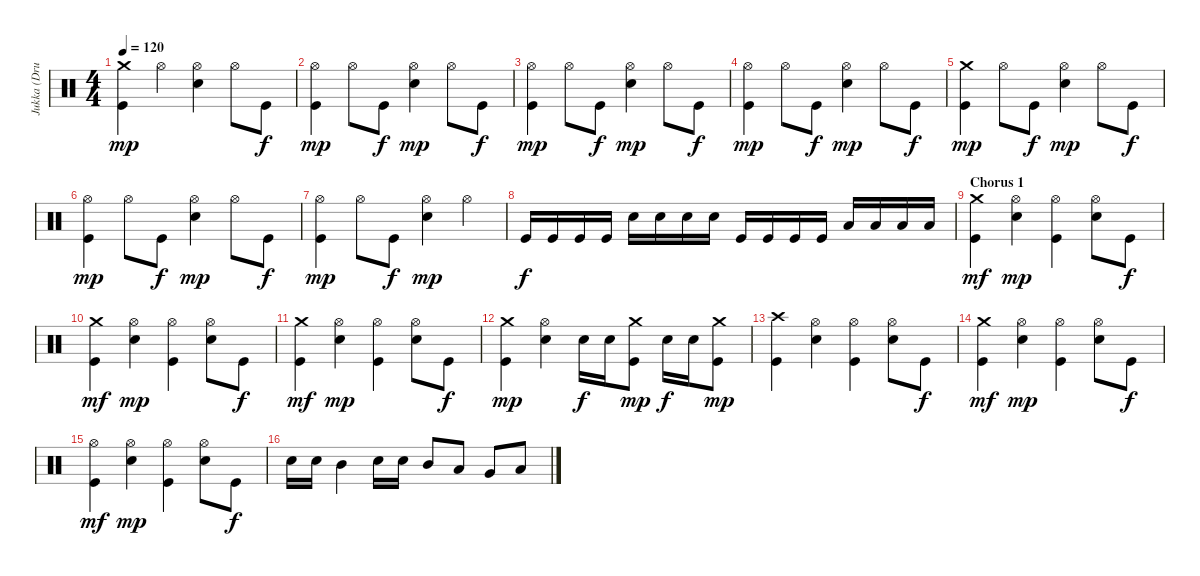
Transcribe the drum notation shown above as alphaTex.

\track ("Jukka (Drums)" "Jukka (Dru") {instrument percussion}
\staff {score}
\articulation defaults
\ts (4 4)
\tempo 120
\clef neutral
\ks c
("Crash medium (hit)" "Kick (hit)").4{dy mp} "Hi-Hat (open)".4 ("Hi-Hat (open)" "Electric Snare (hit)").4 "Hi-Hat (open)".8 "Kick (hit)".8{dy f} |
("Hi-Hat (open)" "Kick (hit)").4{dy mp} "Hi-Hat (open)".8 "Kick (hit)".8{dy f} ("Hi-Hat (open)" "Electric Snare (hit)").4{dy mp} "Hi-Hat (open)".8 "Kick (hit)".8{dy f} |
("Hi-Hat (open)" "Kick (hit)").4{dy mp} "Hi-Hat (open)".8 "Kick (hit)".8{dy f} ("Hi-Hat (open)" "Electric Snare (hit)").4{dy mp} "Hi-Hat (open)".8 "Kick (hit)".8{dy f} |
("Hi-Hat (open)" "Kick (hit)").4{dy mp} "Hi-Hat (open)".8 "Kick (hit)".8{dy f} ("Hi-Hat (open)" "Electric Snare (hit)").4{dy mp} "Hi-Hat (open)".8 "Kick (hit)".8{dy f} |
("Crash medium (hit)" "Kick (hit)").4{dy mp} "Hi-Hat (open)".8 "Kick (hit)".8{dy f} ("Hi-Hat (open)" "Electric Snare (hit)").4{dy mp} "Hi-Hat (open)".8 "Kick (hit)".8{dy f} |
("Hi-Hat (open)" "Kick (hit)").4{dy mp} "Hi-Hat (open)".8 "Kick (hit)".8{dy f} ("Hi-Hat (open)" "Electric Snare (hit)").4{dy mp} "Hi-Hat (open)".8 "Kick (hit)".8{dy f} |
("Hi-Hat (open)" "Kick (hit)").4{dy mp} "Hi-Hat (open)".8 "Kick (hit)".8{dy f} ("Hi-Hat (open)" "Electric Snare (hit)").4{dy mp} "Hi-Hat (open)".4 |
"Kick (hit)".16{dy f} "Kick (hit)".16 "Kick (hit)".16 "Kick (hit)".16 "Electric Snare (hit)".16 "Electric Snare (hit)".16 "Electric Snare (hit)".16 "Electric Snare (hit)".16 "Kick (hit)".16 "Kick (hit)".16 "Kick (hit)".16 "Kick (hit)".16 "Low Floor Tom (hit)".16 "Low Floor Tom (hit)".16 "Low Floor Tom (hit)".16 "Low Floor Tom (hit)".16 |
\section ("" "Chorus 1")
("Crash medium (hit)" "Kick (hit)").4{dy mf} ("Hi-Hat (open)" "Electric Snare (hit)").4{dy mp} ("Hi-Hat (open)" "Kick (hit)").4 ("Hi-Hat (open)" "Electric Snare (hit)").8 "Kick (hit)".8{dy f} |
("Crash medium (hit)" "Kick (hit)").4{dy mf} ("Hi-Hat (open)" "Electric Snare (hit)").4{dy mp} ("Hi-Hat (open)" "Kick (hit)").4 ("Hi-Hat (open)" "Electric Snare (hit)").8 "Kick (hit)".8{dy f} |
("Crash medium (hit)" "Kick (hit)").4{dy mf} ("Hi-Hat (open)" "Electric Snare (hit)").4{dy mp} ("Hi-Hat (open)" "Kick (hit)").4 ("Hi-Hat (open)" "Electric Snare (hit)").8 "Kick (hit)".8{dy f} |
("Crash medium (hit)" "Kick (hit)").4{dy mp} ("Hi-Hat (open)" "Electric Snare (hit)").4 "Electric Snare (hit)".16{dy f} "Electric Snare (hit)".16 ("Crash medium (hit)" "Kick (hit)").8{dy mp} "Electric Snare (hit)".16{dy f} "Electric Snare (hit)".16 ("Crash medium (hit)" "Kick (hit)").8{dy mp} |
("Crash high (hit)" "Kick (hit)").4 ("Hi-Hat (open)" "Electric Snare (hit)").4 ("Hi-Hat (open)" "Kick (hit)").4 ("Hi-Hat (open)" "Electric Snare (hit)").8 "Kick (hit)".8{dy f} |
("Crash medium (hit)" "Kick (hit)").4{dy mf} ("Hi-Hat (open)" "Electric Snare (hit)").4{dy mp} ("Hi-Hat (open)" "Kick (hit)").4 ("Hi-Hat (open)" "Electric Snare (hit)").8 "Kick (hit)".8{dy f} |
("Hi-Hat (open)" "Kick (hit)").4{dy mf} ("Hi-Hat (open)" "Electric Snare (hit)").4{dy mp} ("Hi-Hat (open)" "Kick (hit)").4 ("Hi-Hat (open)" "Electric Snare (hit)").8 "Kick (hit)".8{dy f} |
"Electric Snare (hit)".16 "Electric Snare (hit)".16 "Mid Tom (hit)".4 "Electric Snare (hit)".16 "Electric Snare (hit)".16 "Mid Tom (hit)".8 "Low Tom (hit)".8 "Very Low Tom (hit)".8 "Low Floor Tom (hit)".8
